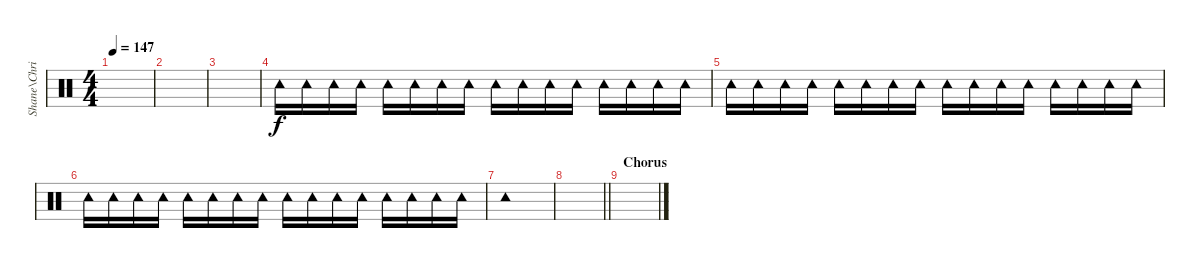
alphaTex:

\track ("Shane\\Chris - Percussion" "Shane\\Chri") {instrument percussion}
\staff {score}
\articulation defaults
\ts (4 4)
\tempo 147
\clef neutral
\ks c
|
|
|
"Tambourine (hit)".16 "Tambourine (hit)".16 "Tambourine (hit)".16 "Tambourine (hit)".16 "Tambourine (hit)".16 "Tambourine (hit)".16 "Tambourine (hit)".16 "Tambourine (hit)".16 "Tambourine (hit)".16 "Tambourine (hit)".16 "Tambourine (hit)".16 "Tambourine (hit)".16 "Tambourine (hit)".16 "Tambourine (hit)".16 "Tambourine (hit)".16 "Tambourine (hit)".16 |
"Tambourine (hit)".16 "Tambourine (hit)".16 "Tambourine (hit)".16 "Tambourine (hit)".16 "Tambourine (hit)".16 "Tambourine (hit)".16 "Tambourine (hit)".16 "Tambourine (hit)".16 "Tambourine (hit)".16 "Tambourine (hit)".16 "Tambourine (hit)".16 "Tambourine (hit)".16 "Tambourine (hit)".16 "Tambourine (hit)".16 "Tambourine (hit)".16 "Tambourine (hit)".16 |
"Tambourine (hit)".16 "Tambourine (hit)".16 "Tambourine (hit)".16 "Tambourine (hit)".16 "Tambourine (hit)".16 "Tambourine (hit)".16 "Tambourine (hit)".16 "Tambourine (hit)".16 "Tambourine (hit)".16 "Tambourine (hit)".16 "Tambourine (hit)".16 "Tambourine (hit)".16 "Tambourine (hit)".16 "Tambourine (hit)".16 "Tambourine (hit)".16 "Tambourine (hit)".16 |
"Tambourine (hit)".1 |
\barLineRight lightlight
|
\section ("" "Chorus")
